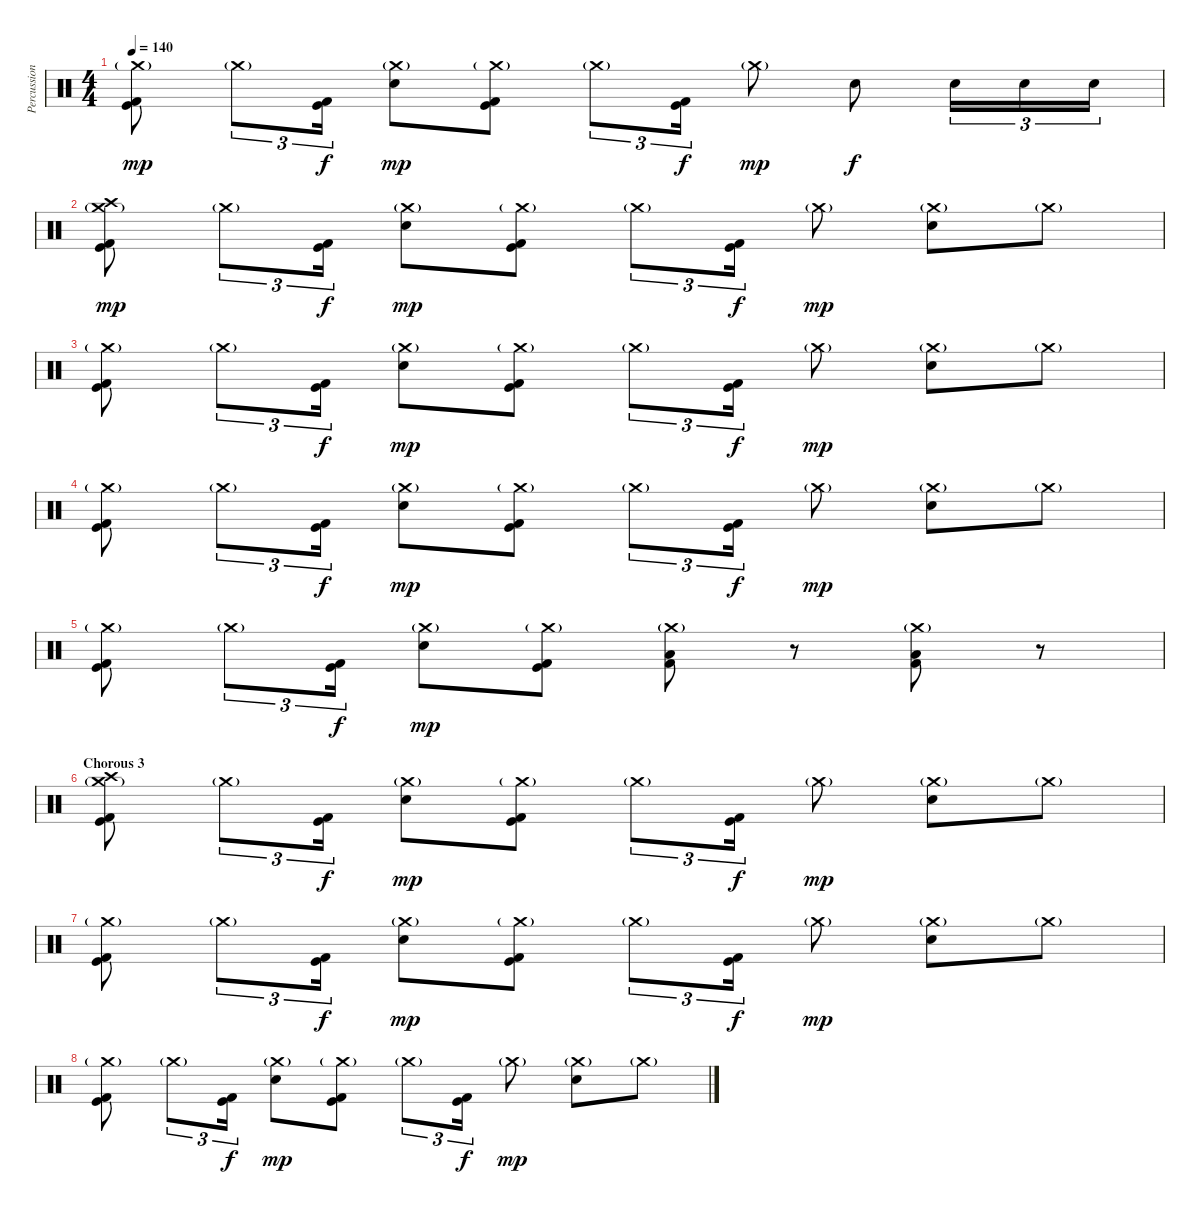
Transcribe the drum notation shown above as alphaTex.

\track ("Percussion" "Percussion") {instrument percussion}
\staff {score}
\articulation defaults
\ts (4 4)
\tempo 140
\clef neutral
\ks c
("Crash medium (hit)"{g} "Kick (hit)" "Kick (hit) 2").8{dy mp} "Crash medium (hit)"{g}.8{tu (3 2)} ("Kick (hit)" "Kick (hit) 2").16{tu (3 2) dy f} ("Crash medium (hit)"{g} "Electric Snare (hit)").8{dy mp} ("Crash medium (hit)"{g} "Kick (hit)" "Kick (hit) 2").8 "Crash medium (hit)"{g}.8{tu (3 2)} ("Kick (hit)" "Kick (hit) 2").16{tu (3 2) dy f} "Crash medium (hit)"{g}.8{dy mp} "Electric Snare (hit)".8{dy f} "Electric Snare (hit)".16{tu (3 2)} "Electric Snare (hit)".16{tu (3 2)} "Electric Snare (hit)".16{tu (3 2)} |
("Crash medium (hit)"{g} "Crash high (hit)" "Kick (hit)" "Kick (hit) 2").8{dy mp} "Crash medium (hit)"{g}.8{tu (3 2)} ("Kick (hit)" "Kick (hit) 2").16{tu (3 2) dy f} ("Crash medium (hit)"{g} "Electric Snare (hit)").8{dy mp} ("Crash medium (hit)"{g} "Kick (hit)" "Kick (hit) 2").8 "Crash medium (hit)"{g}.8{tu (3 2)} ("Kick (hit)" "Kick (hit) 2").16{tu (3 2) dy f} "Crash medium (hit)"{g}.8{dy mp} ("Crash medium (hit)"{g} "Electric Snare (hit)").8 "Crash medium (hit)"{g}.8 |
("Crash medium (hit)"{g} "Kick (hit)" "Kick (hit) 2").8 "Crash medium (hit)"{g}.8{tu (3 2)} ("Kick (hit)" "Kick (hit) 2").16{tu (3 2) dy f} ("Crash medium (hit)"{g} "Electric Snare (hit)").8{dy mp} ("Crash medium (hit)"{g} "Kick (hit)" "Kick (hit) 2").8 "Crash medium (hit)"{g}.8{tu (3 2)} ("Kick (hit)" "Kick (hit) 2").16{tu (3 2) dy f} "Crash medium (hit)"{g}.8{dy mp} ("Crash medium (hit)"{g} "Electric Snare (hit)").8 "Crash medium (hit)"{g}.8 |
("Crash medium (hit)"{g} "Kick (hit)" "Kick (hit) 2").8 "Crash medium (hit)"{g}.8{tu (3 2)} ("Kick (hit)" "Kick (hit) 2").16{tu (3 2) dy f} ("Crash medium (hit)"{g} "Electric Snare (hit)").8{dy mp} ("Crash medium (hit)"{g} "Kick (hit)" "Kick (hit) 2").8 "Crash medium (hit)"{g}.8{tu (3 2)} ("Kick (hit)" "Kick (hit) 2").16{tu (3 2) dy f} "Crash medium (hit)"{g}.8{dy mp} ("Crash medium (hit)"{g} "Electric Snare (hit)").8 "Crash medium (hit)"{g}.8 |
("Crash medium (hit)"{g} "Kick (hit)" "Kick (hit) 2").8 "Crash medium (hit)"{g}.8{tu (3 2)} ("Kick (hit)" "Kick (hit) 2").16{tu (3 2) dy f} ("Crash medium (hit)"{g} "Electric Snare (hit)").8{dy mp} ("Crash medium (hit)"{g} "Kick (hit)" "Kick (hit) 2").8 ("Crash medium (hit)"{g} "Low Floor Tom (hit)" "Kick (hit) 2").8 r.8 ("Crash medium (hit)"{g} "Low Floor Tom (hit)" "Kick (hit) 2").8 r.8 |
\section ("" "Chorous 3")
("Crash medium (hit)"{g} "Crash high (hit)" "Kick (hit)" "Kick (hit) 2").8 "Crash medium (hit)"{g}.8{tu (3 2)} ("Kick (hit)" "Kick (hit) 2").16{tu (3 2) dy f} ("Crash medium (hit)"{g} "Electric Snare (hit)").8{dy mp} ("Crash medium (hit)"{g} "Kick (hit)" "Kick (hit) 2").8 "Crash medium (hit)"{g}.8{tu (3 2)} ("Kick (hit)" "Kick (hit) 2").16{tu (3 2) dy f} "Crash medium (hit)"{g}.8{dy mp} ("Crash medium (hit)"{g} "Electric Snare (hit)").8 "Crash medium (hit)"{g}.8 |
("Crash medium (hit)"{g} "Kick (hit)" "Kick (hit) 2").8 "Crash medium (hit)"{g}.8{tu (3 2)} ("Kick (hit)" "Kick (hit) 2").16{tu (3 2) dy f} ("Crash medium (hit)"{g} "Electric Snare (hit)").8{dy mp} ("Crash medium (hit)"{g} "Kick (hit)" "Kick (hit) 2").8 "Crash medium (hit)"{g}.8{tu (3 2)} ("Kick (hit)" "Kick (hit) 2").16{tu (3 2) dy f} "Crash medium (hit)"{g}.8{dy mp} ("Crash medium (hit)"{g} "Electric Snare (hit)").8 "Crash medium (hit)"{g}.8 |
("Crash medium (hit)"{g} "Kick (hit)" "Kick (hit) 2").8 "Crash medium (hit)"{g}.8{tu (3 2)} ("Kick (hit)" "Kick (hit) 2").16{tu (3 2) dy f} ("Crash medium (hit)"{g} "Electric Snare (hit)").8{dy mp} ("Crash medium (hit)"{g} "Kick (hit)" "Kick (hit) 2").8 "Crash medium (hit)"{g}.8{tu (3 2)} ("Kick (hit)" "Kick (hit) 2").16{tu (3 2) dy f} "Crash medium (hit)"{g}.8{dy mp} ("Crash medium (hit)"{g} "Electric Snare (hit)").8 "Crash medium (hit)"{g}.8
